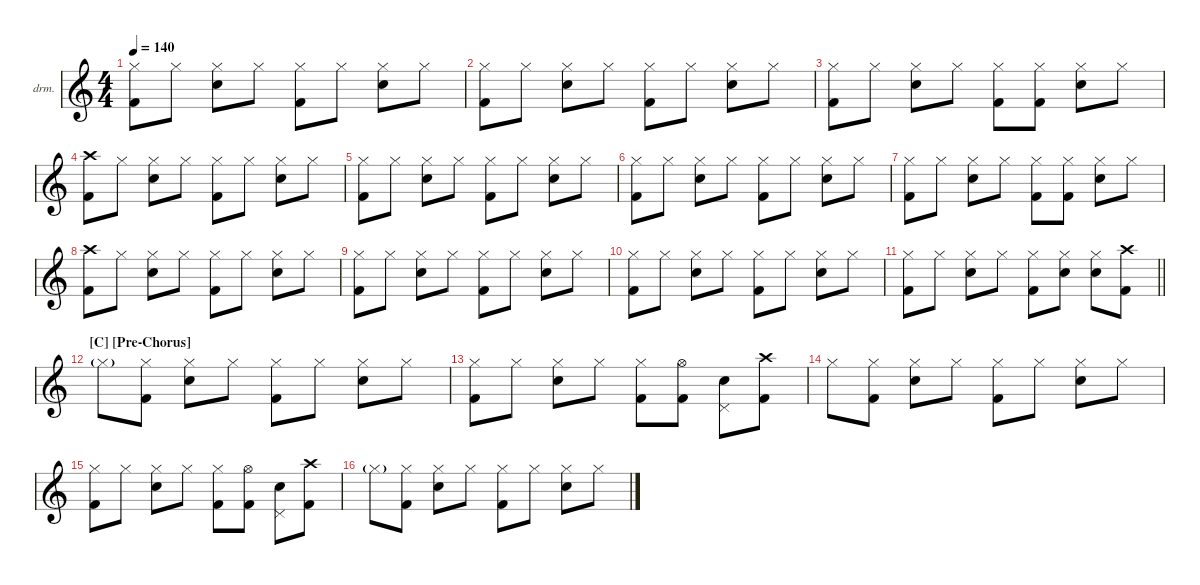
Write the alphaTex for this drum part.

\defaultSystemsLayout 4
\hideDynamics
\bracketExtendMode nobrackets
\firstSystemTrackNameOrientation horizontal
\track ("Sepehr Tajbakhsh {Nick Menza}" "drm.") {instrument percussion}
\staff {score}
\articulation defaults
\ts (4 4)
\tempo 140
\clef g2
\ks c
("Hi-Hat (closed)" "Kick (hit) 2").8{dy f beam Down} "Hi-Hat (closed)".8{beam Down} ("Hi-Hat (closed)" "Snare (hit) 2").8{beam Down} "Hi-Hat (closed)".8{beam Down} ("Hi-Hat (closed)" "Kick (hit) 2").8{beam Down} "Hi-Hat (closed)".8{beam Down} ("Hi-Hat (closed)" "Snare (hit) 2").8{beam Down} "Hi-Hat (closed)".8{beam Down} |
("Hi-Hat (closed)" "Kick (hit) 2").8{beam Down} "Hi-Hat (closed)".8{beam Down} ("Hi-Hat (closed)" "Snare (hit) 2").8{beam Down} "Hi-Hat (closed)".8{beam Down} ("Hi-Hat (closed)" "Kick (hit) 2").8{beam Down} "Hi-Hat (closed)".8{beam Down} ("Hi-Hat (closed)" "Snare (hit) 2").8{beam Down} "Hi-Hat (closed)".8{beam Down} |
("Hi-Hat (closed)" "Kick (hit) 2").8{beam Down} "Hi-Hat (closed)".8{beam Down} ("Hi-Hat (closed)" "Snare (hit) 2").8{beam Down} "Hi-Hat (closed)".8{beam Down} ("Hi-Hat (closed)" "Kick (hit) 2").8{beam Down} ("Hi-Hat (closed)" "Kick (hit) 2").8{beam Down} ("Hi-Hat (closed)" "Snare (hit) 2").8{beam Down} "Hi-Hat (closed)".8{beam Down} |
("Crash high (hit)" "Kick (hit) 2").8{beam Down} "Hi-Hat (closed)".8{beam Down} ("Hi-Hat (closed)" "Snare (hit) 2").8{beam Down} "Hi-Hat (closed)".8{beam Down} ("Hi-Hat (closed)" "Kick (hit) 2").8{beam Down} "Hi-Hat (closed)".8{beam Down} ("Hi-Hat (closed)" "Snare (hit) 2").8{beam Down} "Hi-Hat (closed)".8{beam Down} |
("Hi-Hat (closed)" "Kick (hit) 2").8{beam Down} "Hi-Hat (closed)".8{beam Down} ("Hi-Hat (closed)" "Snare (hit) 2").8{beam Down} "Hi-Hat (closed)".8{beam Down} ("Hi-Hat (closed)" "Kick (hit) 2").8{beam Down} "Hi-Hat (closed)".8{beam Down} ("Hi-Hat (closed)" "Snare (hit) 2").8{beam Down} "Hi-Hat (closed)".8{beam Down} |
("Hi-Hat (closed)" "Kick (hit) 2").8{beam Down} "Hi-Hat (closed)".8{beam Down} ("Hi-Hat (closed)" "Snare (hit) 2").8{beam Down} "Hi-Hat (closed)".8{beam Down} ("Hi-Hat (closed)" "Kick (hit) 2").8{beam Down} "Hi-Hat (closed)".8{beam Down} ("Hi-Hat (closed)" "Snare (hit) 2").8{beam Down} "Hi-Hat (closed)".8{beam Down} |
("Hi-Hat (closed)" "Kick (hit) 2").8{beam Down} "Hi-Hat (closed)".8{beam Down} ("Hi-Hat (closed)" "Snare (hit) 2").8{beam Down} "Hi-Hat (closed)".8{beam Down} ("Hi-Hat (closed)" "Kick (hit) 2").8{beam Down} ("Hi-Hat (closed)" "Kick (hit) 2").8{beam Down} ("Hi-Hat (closed)" "Snare (hit) 2").8{beam Down} "Hi-Hat (closed)".8{beam Down} |
("Crash high (hit)" "Kick (hit) 2").8{beam Down} "Hi-Hat (closed)".8{beam Down} ("Hi-Hat (closed)" "Snare (hit) 2").8{beam Down} "Hi-Hat (closed)".8{beam Down} ("Hi-Hat (closed)" "Kick (hit) 2").8{beam Down} "Hi-Hat (closed)".8{beam Down} ("Hi-Hat (closed)" "Snare (hit) 2").8{beam Down} "Hi-Hat (closed)".8{beam Down} |
("Hi-Hat (closed)" "Kick (hit) 2").8{beam Down} "Hi-Hat (closed)".8{beam Down} ("Hi-Hat (closed)" "Snare (hit) 2").8{beam Down} "Hi-Hat (closed)".8{beam Down} ("Hi-Hat (closed)" "Kick (hit) 2").8{beam Down} "Hi-Hat (closed)".8{beam Down} ("Hi-Hat (closed)" "Snare (hit) 2").8{beam Down} "Hi-Hat (closed)".8{beam Down} |
("Hi-Hat (closed)" "Kick (hit) 2").8{beam Down} "Hi-Hat (closed)".8{beam Down} ("Hi-Hat (closed)" "Snare (hit) 2").8{beam Down} "Hi-Hat (closed)".8{beam Down} ("Hi-Hat (closed)" "Kick (hit) 2").8{beam Down} "Hi-Hat (closed)".8{beam Down} ("Hi-Hat (closed)" "Snare (hit) 2").8{beam Down} "Hi-Hat (closed)".8{beam Down} |
\barLineRight lightlight
("Hi-Hat (closed)" "Kick (hit) 2").8{beam Down} "Hi-Hat (closed)".8{beam Down} ("Hi-Hat (closed)" "Snare (hit) 2").8{beam Down} "Hi-Hat (closed)".8{beam Down} ("Hi-Hat (closed)" "Kick (hit) 2").8{beam Down} ("Hi-Hat (closed)" "Snare (hit) 2").8{beam Down} ("Hi-Hat (closed)" "Snare (hit) 2").8{beam Down} ("Crash high (hit)" "Kick (hit) 2").8{beam Down} |
\section ("C" "[Pre-Chorus]")
"Hi-Hat (closed)"{g}.8{beam Down} ("Hi-Hat (closed)" "Kick (hit) 2").8{beam Down} ("Hi-Hat (closed)" "Snare (hit) 2").8{beam Down} "Hi-Hat (closed)".8{beam Down} ("Hi-Hat (closed)" "Kick (hit) 2").8{beam Down} "Hi-Hat (closed)".8{beam Down} ("Hi-Hat (closed)" "Snare (hit) 2").8{beam Down} "Hi-Hat (closed)".8{beam Down} |
("Hi-Hat (closed)" "Kick (hit) 2").8{beam Down} "Hi-Hat (closed)".8{beam Down} ("Hi-Hat (closed)" "Snare (hit) 2").8{beam Down} "Hi-Hat (closed)".8{beam Down} ("Hi-Hat (closed)" "Kick (hit) 2").8{beam Down} ("Hi-Hat (open)" "Kick (hit) 2").8{beam Down} ("Snare (hit) 2" "Pedal Hi-Hat (hit)").8{beam Down} ("Crash high (hit)" "Kick (hit) 2").8{beam Down} |
"Hi-Hat (closed)".8{beam Down} ("Hi-Hat (closed)" "Kick (hit) 2").8{beam Down} ("Hi-Hat (closed)" "Snare (hit) 2").8{beam Down} "Hi-Hat (closed)".8{beam Down} ("Hi-Hat (closed)" "Kick (hit) 2").8{beam Down} "Hi-Hat (closed)".8{beam Down} ("Hi-Hat (closed)" "Snare (hit) 2").8{beam Down} "Hi-Hat (closed)".8{beam Down} |
("Hi-Hat (closed)" "Kick (hit) 2").8{beam Down} "Hi-Hat (closed)".8{beam Down} ("Hi-Hat (closed)" "Snare (hit) 2").8{beam Down} "Hi-Hat (closed)".8{beam Down} ("Hi-Hat (closed)" "Kick (hit) 2").8{beam Down} ("Hi-Hat (open)" "Kick (hit) 2").8{beam Down} ("Snare (hit) 2" "Pedal Hi-Hat (hit)").8{beam Down} ("Crash high (hit)" "Kick (hit) 2").8{beam Down} |
"Hi-Hat (closed)"{g}.8{beam Down} ("Hi-Hat (closed)" "Kick (hit) 2").8{beam Down} ("Hi-Hat (closed)" "Snare (hit) 2").8{beam Down} "Hi-Hat (closed)".8{beam Down} ("Hi-Hat (closed)" "Kick (hit) 2").8{beam Down} "Hi-Hat (closed)".8{beam Down} ("Hi-Hat (closed)" "Snare (hit) 2").8{beam Down} "Hi-Hat (closed)".8{beam Down}
